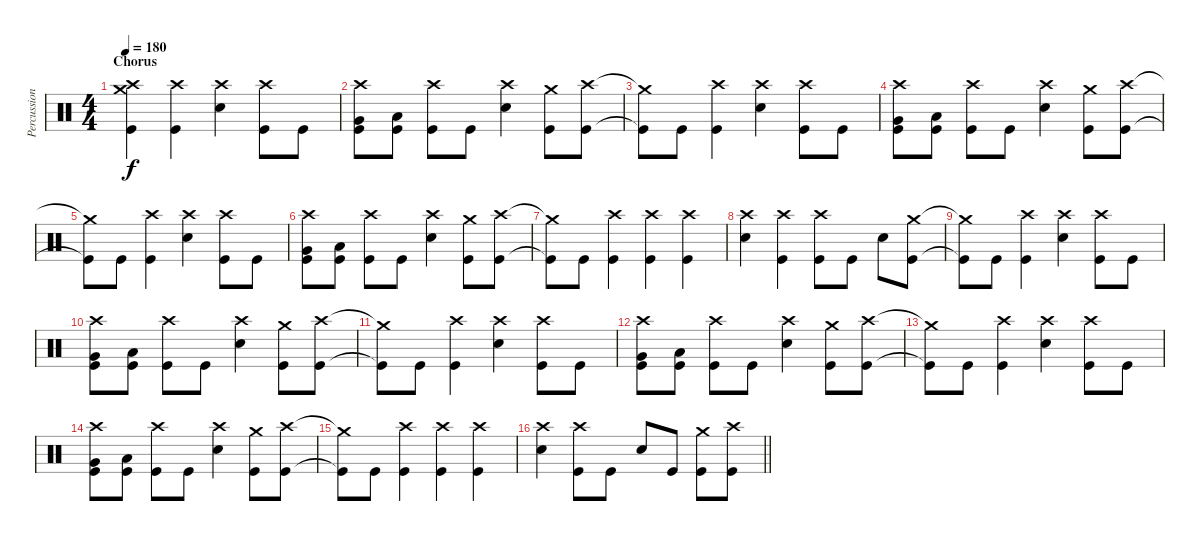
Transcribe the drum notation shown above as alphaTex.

\track ("Percussion" "Percussion") {instrument percussion}
\staff {score}
\articulation defaults
\ts (4 4)
\section ("" "Chorus")
\tempo 180
\clef neutral
\ks c
("Crash medium (hit)" "Crash high (hit)" "Kick (hit)").4{dy f} ("Crash high (hit)" "Kick (hit)").4 ("Crash high (hit)" "Snare (hit) 2").4 ("Crash high (hit)" "Kick (hit)").8 "Kick (hit)".8 |
("Crash high (hit)" "Very Low Tom (hit)" "Kick (hit)").8 ("Low Floor Tom (hit)" "Kick (hit)").8 ("Crash high (hit)" "Kick (hit)").8 "Kick (hit)".8 ("Crash high (hit)" "Snare (hit) 2").4 ("Crash medium (hit)" "Kick (hit)").8 ("Crash high (hit)" "Kick (hit)").8 |
("Crash medium (hit)"{t} "Kick (hit)"{t}).8 "Kick (hit)".8 ("Crash high (hit)" "Kick (hit)").4 ("Crash high (hit)" "Snare (hit) 2").4 ("Crash high (hit)" "Kick (hit)").8 "Kick (hit)".8 |
("Crash high (hit)" "Very Low Tom (hit)" "Kick (hit)").8 ("Low Floor Tom (hit)" "Kick (hit)").8 ("Crash high (hit)" "Kick (hit)").8 "Kick (hit)".8 ("Crash high (hit)" "Snare (hit) 2").4 ("Crash medium (hit)" "Kick (hit)").8 ("Crash high (hit)" "Kick (hit)").8 |
("Crash medium (hit)"{t} "Kick (hit)"{t}).8 "Kick (hit)".8 ("Crash high (hit)" "Kick (hit)").4 ("Crash high (hit)" "Snare (hit) 2").4 ("Crash high (hit)" "Kick (hit)").8 "Kick (hit)".8 |
("Crash high (hit)" "Very Low Tom (hit)" "Kick (hit)").8 ("Low Floor Tom (hit)" "Kick (hit)").8 ("Crash high (hit)" "Kick (hit)").8 "Kick (hit)".8 ("Crash high (hit)" "Snare (hit) 2").4 ("Crash medium (hit)" "Kick (hit)").8 ("Crash high (hit)" "Kick (hit)").8 |
("Crash medium (hit)"{t} "Kick (hit)"{t}).8 "Kick (hit)".8 ("Crash high (hit)" "Kick (hit)").4 ("Crash high (hit)" "Kick (hit)").4 ("Crash high (hit)" "Kick (hit)").4 |
("Crash high (hit)" "Snare (hit) 2").4 ("Crash high (hit)" "Kick (hit)").4 ("Crash high (hit)" "Kick (hit)").8 "Kick (hit)".8 "Snare (hit) 2".8 ("Crash medium (hit)" "Kick (hit)").8 |
("Crash medium (hit)"{t} "Kick (hit)"{t}).8 "Kick (hit)".8 ("Crash high (hit)" "Kick (hit)").4 ("Crash high (hit)" "Snare (hit) 2").4 ("Crash high (hit)" "Kick (hit)").8 "Kick (hit)".8 |
("Crash high (hit)" "Very Low Tom (hit)" "Kick (hit)").8 ("Low Floor Tom (hit)" "Kick (hit)").8 ("Crash high (hit)" "Kick (hit)").8 "Kick (hit)".8 ("Crash high (hit)" "Snare (hit) 2").4 ("Crash medium (hit)" "Kick (hit)").8 ("Crash high (hit)" "Kick (hit)").8 |
("Crash medium (hit)"{t} "Kick (hit)"{t}).8 "Kick (hit)".8 ("Crash high (hit)" "Kick (hit)").4 ("Crash high (hit)" "Snare (hit) 2").4 ("Crash high (hit)" "Kick (hit)").8 "Kick (hit)".8 |
("Crash high (hit)" "Very Low Tom (hit)" "Kick (hit)").8 ("Low Floor Tom (hit)" "Kick (hit)").8 ("Crash high (hit)" "Kick (hit)").8 "Kick (hit)".8 ("Crash high (hit)" "Snare (hit) 2").4 ("Crash medium (hit)" "Kick (hit)").8 ("Crash high (hit)" "Kick (hit)").8 |
("Crash medium (hit)"{t} "Kick (hit)"{t}).8 "Kick (hit)".8 ("Crash high (hit)" "Kick (hit)").4 ("Crash high (hit)" "Snare (hit) 2").4 ("Crash high (hit)" "Kick (hit)").8 "Kick (hit)".8 |
("Crash high (hit)" "Very Low Tom (hit)" "Kick (hit)").8 ("Low Floor Tom (hit)" "Kick (hit)").8 ("Crash high (hit)" "Kick (hit)").8 "Kick (hit)".8 ("Crash high (hit)" "Snare (hit) 2").4 ("Crash medium (hit)" "Kick (hit)").8 ("Crash high (hit)" "Kick (hit)").8 |
("Crash medium (hit)"{t} "Kick (hit)"{t}).8 "Kick (hit)".8 ("Crash high (hit)" "Kick (hit)").4 ("Crash high (hit)" "Kick (hit)").4 ("Crash high (hit)" "Kick (hit)").4 |
\barLineRight lightlight
("Crash high (hit)" "Snare (hit) 2").4 ("Crash high (hit)" "Kick (hit)").8 "Kick (hit)".8 "Snare (hit) 2".8 "Kick (hit)".8 ("Crash medium (hit)" "Kick (hit)").8 ("Crash high (hit)" "Kick (hit)").8
